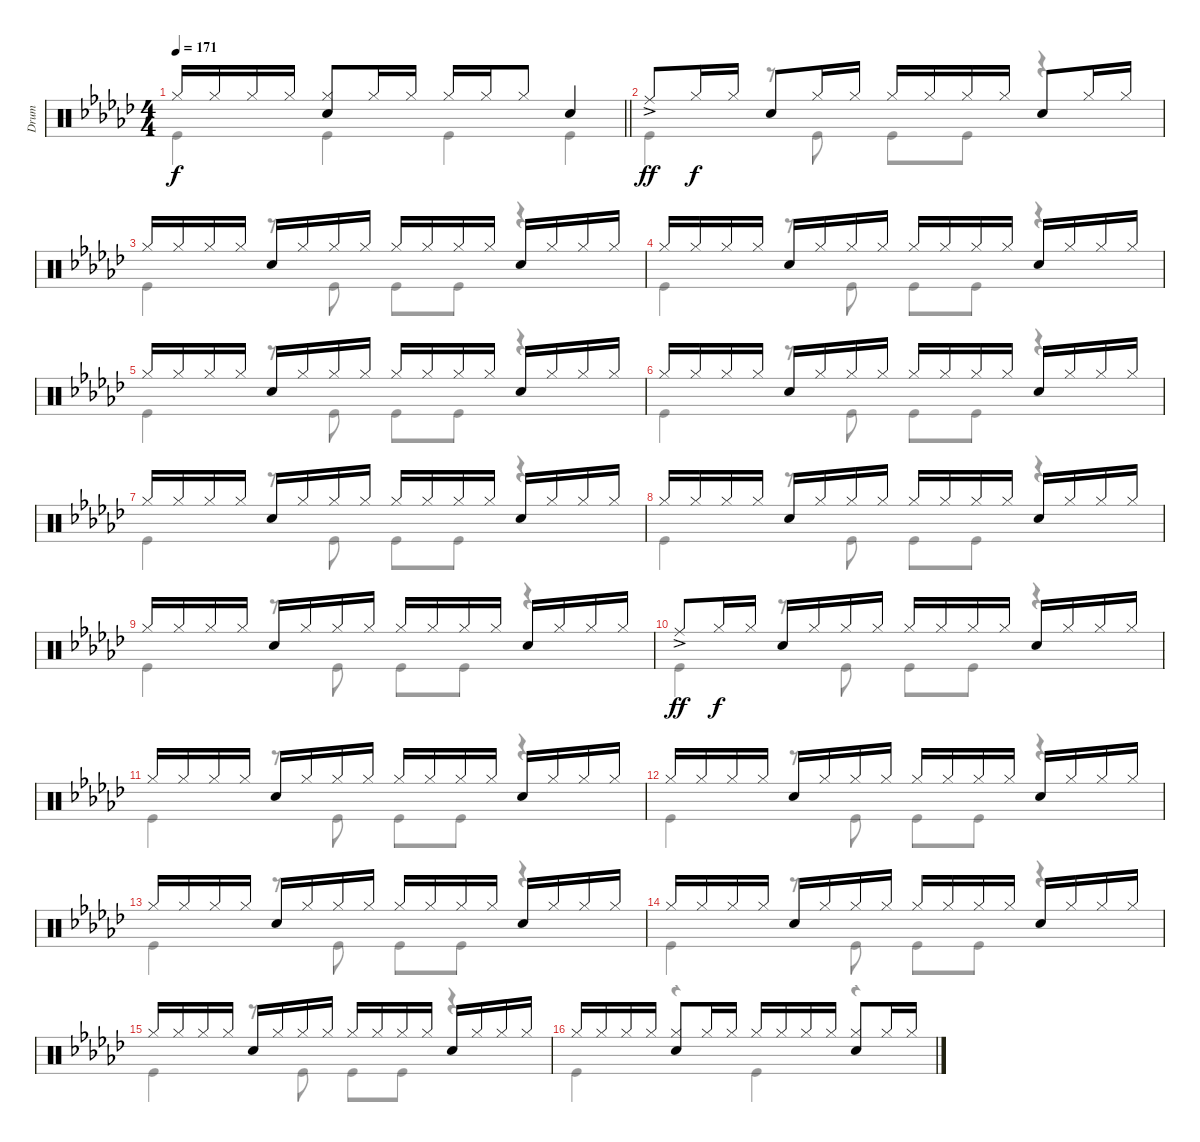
\track ("Drum" "Drum") {instrument percussion}
\staff {score}
\articulation defaults
\voice
\ts (4 4)
\tempo 171
\clef neutral
\barLineRight lightlight
\ks gb "Hi-Hat (closed)".16{dy f} "Hi-Hat (closed)".16 "Hi-Hat (closed)".16 "Hi-Hat (closed)".16
("Snare (hit) 2" "Hi-Hat (closed)").8 "Hi-Hat (closed)".16 "Hi-Hat (closed)".16 "Hi-Hat (closed)".16 "Hi-Hat (closed)".16 "Hi-Hat (closed)".8 "Snare (hit) 2".4 |
"Ride (middle)"{ac}.8{dy ff} "Hi-Hat (closed)".16{dy f} "Hi-Hat (closed)".16 "Snare (hit) 2".8 "Hi-Hat (closed)".16 "Hi-Hat (closed)".16 "Hi-Hat (closed)".16 "Hi-Hat (closed)".16 "Hi-Hat (closed)".16 "Hi-Hat (closed)".16 "Snare (hit) 2".8 "Hi-Hat (closed)".16 "Hi-Hat (closed)".16 |
"Hi-Hat (closed)".16 "Hi-Hat (closed)".16 "Hi-Hat (closed)".16 "Hi-Hat (closed)".16 "Snare (hit) 2".16 "Hi-Hat (closed)".16 "Hi-Hat (closed)".16 "Hi-Hat (closed)".16 "Hi-Hat (closed)".16 "Hi-Hat (closed)".16 "Hi-Hat (closed)".16 "Hi-Hat (closed)".16 "Snare (hit) 2".16 "Hi-Hat (closed)".16 "Hi-Hat (closed)".16 "Hi-Hat (closed)".16 |
"Hi-Hat (closed)".16 "Hi-Hat (closed)".16 "Hi-Hat (closed)".16 "Hi-Hat (closed)".16 "Snare (hit) 2".16 "Hi-Hat (closed)".16 "Hi-Hat (closed)".16 "Hi-Hat (closed)".16 "Hi-Hat (closed)".16 "Hi-Hat (closed)".16 "Hi-Hat (closed)".16 "Hi-Hat (closed)".16 "Snare (hit) 2".16 "Hi-Hat (closed)".16 "Hi-Hat (closed)".16 "Hi-Hat (closed)".16 |
"Hi-Hat (closed)".16 "Hi-Hat (closed)".16 "Hi-Hat (closed)".16 "Hi-Hat (closed)".16 "Snare (hit) 2".16 "Hi-Hat (closed)".16 "Hi-Hat (closed)".16 "Hi-Hat (closed)".16 "Hi-Hat (closed)".16 "Hi-Hat (closed)".16 "Hi-Hat (closed)".16 "Hi-Hat (closed)".16 "Snare (hit) 2".16 "Hi-Hat (closed)".16 "Hi-Hat (closed)".16 "Hi-Hat (closed)".16 |
"Hi-Hat (closed)".16 "Hi-Hat (closed)".16 "Hi-Hat (closed)".16 "Hi-Hat (closed)".16 "Snare (hit) 2".16 "Hi-Hat (closed)".16 "Hi-Hat (closed)".16 "Hi-Hat (closed)".16 "Hi-Hat (closed)".16 "Hi-Hat (closed)".16 "Hi-Hat (closed)".16 "Hi-Hat (closed)".16 "Snare (hit) 2".16 "Hi-Hat (closed)".16 "Hi-Hat (closed)".16 "Hi-Hat (closed)".16 |
"Hi-Hat (closed)".16 "Hi-Hat (closed)".16 "Hi-Hat (closed)".16 "Hi-Hat (closed)".16 "Snare (hit) 2".16 "Hi-Hat (closed)".16 "Hi-Hat (closed)".16 "Hi-Hat (closed)".16 "Hi-Hat (closed)".16 "Hi-Hat (closed)".16 "Hi-Hat (closed)".16 "Hi-Hat (closed)".16 "Snare (hit) 2".16 "Hi-Hat (closed)".16 "Hi-Hat (closed)".16 "Hi-Hat (closed)".16 |
"Hi-Hat (closed)".16 "Hi-Hat (closed)".16 "Hi-Hat (closed)".16 "Hi-Hat (closed)".16 "Snare (hit) 2".16 "Hi-Hat (closed)".16 "Hi-Hat (closed)".16 "Hi-Hat (closed)".16 "Hi-Hat (closed)".16 "Hi-Hat (closed)".16 "Hi-Hat (closed)".16 "Hi-Hat (closed)".16 "Snare (hit) 2".16 "Hi-Hat (closed)".16 "Hi-Hat (closed)".16 "Hi-Hat (closed)".16 |
"Hi-Hat (closed)".16 "Hi-Hat (closed)".16 "Hi-Hat (closed)".16 "Hi-Hat (closed)".16 "Snare (hit) 2".16 "Hi-Hat (closed)".16 "Hi-Hat (closed)".16 "Hi-Hat (closed)".16 "Hi-Hat (closed)".16 "Hi-Hat (closed)".16 "Hi-Hat (closed)".16 "Hi-Hat (closed)".16 "Snare (hit) 2".16 "Hi-Hat (closed)".16 "Hi-Hat (closed)".16 "Hi-Hat (closed)".16 |
"Ride (middle)"{ac}.8{dy ff} "Hi-Hat (closed)".16{dy f} "Hi-Hat (closed)".16 "Snare (hit) 2".16 "Hi-Hat (closed)".16 "Hi-Hat (closed)".16 "Hi-Hat (closed)".16 "Hi-Hat (closed)".16 "Hi-Hat (closed)".16 "Hi-Hat (closed)".16 "Hi-Hat (closed)".16 "Snare (hit) 2".16 "Hi-Hat (closed)".16 "Hi-Hat (closed)".16 "Hi-Hat (closed)".16 |
"Hi-Hat (closed)".16 "Hi-Hat (closed)".16 "Hi-Hat (closed)".16 "Hi-Hat (closed)".16 "Snare (hit) 2".16 "Hi-Hat (closed)".16 "Hi-Hat (closed)".16 "Hi-Hat (closed)".16 "Hi-Hat (closed)".16 "Hi-Hat (closed)".16 "Hi-Hat (closed)".16 "Hi-Hat (closed)".16 "Snare (hit) 2".16 "Hi-Hat (closed)".16 "Hi-Hat (closed)".16 "Hi-Hat (closed)".16 |
"Hi-Hat (closed)".16 "Hi-Hat (closed)".16 "Hi-Hat (closed)".16 "Hi-Hat (closed)".16 "Snare (hit) 2".16 "Hi-Hat (closed)".16 "Hi-Hat (closed)".16 "Hi-Hat (closed)".16 "Hi-Hat (closed)".16 "Hi-Hat (closed)".16 "Hi-Hat (closed)".16 "Hi-Hat (closed)".16 "Snare (hit) 2".16 "Hi-Hat (closed)".16 "Hi-Hat (closed)".16 "Hi-Hat (closed)".16 |
"Hi-Hat (closed)".16 "Hi-Hat (closed)".16 "Hi-Hat (closed)".16 "Hi-Hat (closed)".16 "Snare (hit) 2".16 "Hi-Hat (closed)".16 "Hi-Hat (closed)".16 "Hi-Hat (closed)".16 "Hi-Hat (closed)".16 "Hi-Hat (closed)".16 "Hi-Hat (closed)".16 "Hi-Hat (closed)".16 "Snare (hit) 2".16 "Hi-Hat (closed)".16 "Hi-Hat (closed)".16 "Hi-Hat (closed)".16 |
"Hi-Hat (closed)".16 "Hi-Hat (closed)".16 "Hi-Hat (closed)".16 "Hi-Hat (closed)".16 "Snare (hit) 2".16 "Hi-Hat (closed)".16 "Hi-Hat (closed)".16 "Hi-Hat (closed)".16 "Hi-Hat (closed)".16 "Hi-Hat (closed)".16 "Hi-Hat (closed)".16 "Hi-Hat (closed)".16 "Snare (hit) 2".16 "Hi-Hat (closed)".16 "Hi-Hat (closed)".16 "Hi-Hat (closed)".16 |
"Hi-Hat (closed)".16 "Hi-Hat (closed)".16 "Hi-Hat (closed)".16 "Hi-Hat (closed)".16 "Snare (hit) 2".16 "Hi-Hat (closed)".16 "Hi-Hat (closed)".16 "Hi-Hat (closed)".16 "Hi-Hat (closed)".16 "Hi-Hat (closed)".16 "Hi-Hat (closed)".16 "Hi-Hat (closed)".16 "Snare (hit) 2".16 "Hi-Hat (closed)".16 "Hi-Hat (closed)".16 "Hi-Hat (closed)".16 |
"Hi-Hat (closed)".16 "Hi-Hat (closed)".16 "Hi-Hat (closed)".16 "Hi-Hat (closed)".16 ("Snare (hit) 2" "Hi-Hat (closed)").8 "Hi-Hat (closed)".16 "Hi-Hat (closed)".16 "Hi-Hat (closed)".16 "Hi-Hat (closed)".16 "Hi-Hat (closed)".16 "Hi-Hat (closed)".16 ("Snare (hit) 2" "Hi-Hat (closed)").8 "Hi-Hat (closed)".16 "Hi-Hat (closed)".16
\voice
\clef neutral
\ottava regular
\simile none
\barLineRight lightlight
\ks gb "Kick (hit)".4{dy f} "Kick (hit)".4 "Kick (hit)".4 "Kick (hit)".4
|
"Kick (hit)".4 r.8 "Kick (hit)".8 "Kick (hit)".8 "Kick (hit)".8 r.4 |
"Kick (hit)".4 r.8 "Kick (hit)".8 "Kick (hit)".8 "Kick (hit)".8 r.4 |
"Kick (hit)".4 r.8 "Kick (hit)".8 "Kick (hit)".8 "Kick (hit)".8 r.4 |
"Kick (hit)".4 r.8 "Kick (hit)".8 "Kick (hit)".8 "Kick (hit)".8 r.4 |
"Kick (hit)".4 r.8 "Kick (hit)".8 "Kick (hit)".8 "Kick (hit)".8 r.4 |
"Kick (hit)".4 r.8 "Kick (hit)".8 "Kick (hit)".8 "Kick (hit)".8 r.4 |
"Kick (hit)".4 r.8 "Kick (hit)".8 "Kick (hit)".8 "Kick (hit)".8 r.4 |
"Kick (hit)".4 r.8 "Kick (hit)".8 "Kick (hit)".8 "Kick (hit)".8 r.4 |
"Kick (hit)".4 r.8 "Kick (hit)".8 "Kick (hit)".8 "Kick (hit)".8 r.4 |
"Kick (hit)".4 r.8 "Kick (hit)".8 "Kick (hit)".8 "Kick (hit)".8 r.4 |
"Kick (hit)".4 r.8 "Kick (hit)".8 "Kick (hit)".8 "Kick (hit)".8 r.4 |
"Kick (hit)".4 r.8 "Kick (hit)".8 "Kick (hit)".8 "Kick (hit)".8 r.4 |
"Kick (hit)".4 r.8 "Kick (hit)".8 "Kick (hit)".8 "Kick (hit)".8 r.4 |
"Kick (hit)".4 r.8 "Kick (hit)".8 "Kick (hit)".8 "Kick (hit)".8 r.4 |
"Kick (hit)".4 r.4 "Kick (hit)".4 r.4
